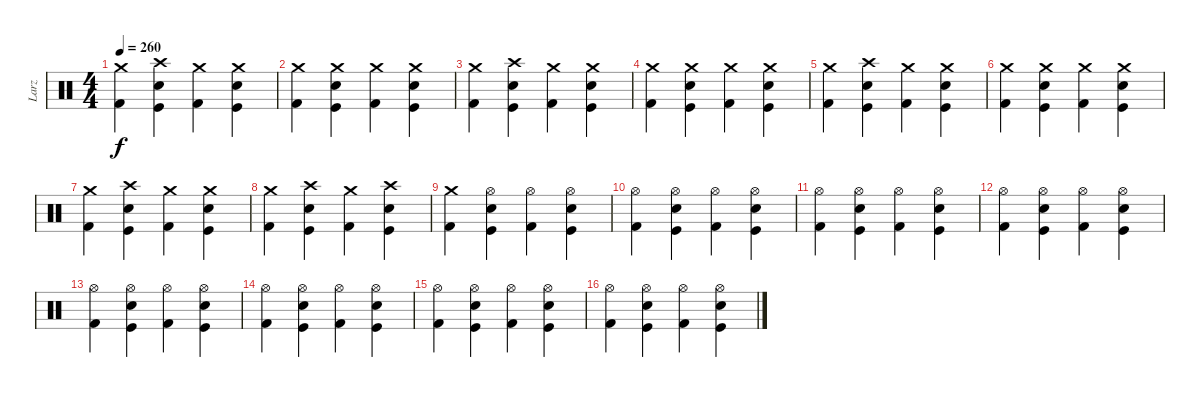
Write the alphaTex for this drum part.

\track ("Larz" "Larz") {instrument percussion}
\staff {score}
\articulation defaults
\ts (4 4)
\tempo 260
\clef neutral
\ks c
("Crash medium (hit)" "Kick (hit) 2").4{dy f} ("Crash high (hit)" "Kick (hit)" "Electric Snare (hit)").4 ("Crash medium (hit)" "Kick (hit) 2").4 ("Crash medium (hit)" "Kick (hit)" "Electric Snare (hit)").4 |
("Crash medium (hit)" "Kick (hit) 2").4 ("Crash medium (hit)" "Kick (hit)" "Electric Snare (hit)").4 ("Crash medium (hit)" "Kick (hit) 2").4 ("Crash medium (hit)" "Kick (hit)" "Electric Snare (hit)").4 |
("Crash medium (hit)" "Kick (hit) 2").4 ("Crash high (hit)" "Kick (hit)" "Electric Snare (hit)").4 ("Crash medium (hit)" "Kick (hit) 2").4 ("Crash medium (hit)" "Kick (hit)" "Electric Snare (hit)").4 |
("Crash medium (hit)" "Kick (hit) 2").4 ("Crash medium (hit)" "Kick (hit)" "Electric Snare (hit)").4 ("Crash medium (hit)" "Kick (hit) 2").4 ("Crash medium (hit)" "Kick (hit)" "Electric Snare (hit)").4 |
("Crash medium (hit)" "Kick (hit) 2").4 ("Crash high (hit)" "Kick (hit)" "Electric Snare (hit)").4 ("Crash medium (hit)" "Kick (hit) 2").4 ("Crash medium (hit)" "Kick (hit)" "Electric Snare (hit)").4 |
("Crash medium (hit)" "Kick (hit) 2").4 ("Crash medium (hit)" "Kick (hit)" "Electric Snare (hit)").4 ("Crash medium (hit)" "Kick (hit) 2").4 ("Crash medium (hit)" "Kick (hit)" "Electric Snare (hit)").4 |
("Crash medium (hit)" "Kick (hit) 2").4 ("Crash high (hit)" "Kick (hit)" "Electric Snare (hit)").4 ("Crash medium (hit)" "Kick (hit) 2").4 ("Crash medium (hit)" "Kick (hit)" "Electric Snare (hit)").4 |
("Crash medium (hit)" "Kick (hit) 2").4 ("Crash high (hit)" "Kick (hit)" "Electric Snare (hit)").4 ("Crash medium (hit)" "Kick (hit) 2").4 ("Crash high (hit)" "Kick (hit)" "Electric Snare (hit)").4 |
("Crash medium (hit)" "Kick (hit) 2").4 ("Hi-Hat (open)" "Kick (hit)" "Electric Snare (hit)").4 ("Hi-Hat (open)" "Kick (hit) 2").4 ("Hi-Hat (open)" "Kick (hit)" "Electric Snare (hit)").4 |
("Hi-Hat (open)" "Kick (hit) 2").4 ("Hi-Hat (open)" "Kick (hit)" "Electric Snare (hit)").4 ("Hi-Hat (open)" "Kick (hit) 2").4 ("Hi-Hat (open)" "Kick (hit)" "Electric Snare (hit)").4 |
("Hi-Hat (open)" "Kick (hit) 2").4 ("Hi-Hat (open)" "Kick (hit)" "Electric Snare (hit)").4 ("Hi-Hat (open)" "Kick (hit) 2").4 ("Hi-Hat (open)" "Kick (hit)" "Electric Snare (hit)").4 |
("Hi-Hat (open)" "Kick (hit) 2").4 ("Hi-Hat (open)" "Kick (hit)" "Electric Snare (hit)").4 ("Hi-Hat (open)" "Kick (hit) 2").4 ("Hi-Hat (open)" "Kick (hit)" "Electric Snare (hit)").4 |
("Hi-Hat (open)" "Kick (hit) 2").4 ("Hi-Hat (open)" "Kick (hit)" "Electric Snare (hit)").4 ("Hi-Hat (open)" "Kick (hit) 2").4 ("Hi-Hat (open)" "Kick (hit)" "Electric Snare (hit)").4 |
("Hi-Hat (open)" "Kick (hit) 2").4 ("Hi-Hat (open)" "Kick (hit)" "Electric Snare (hit)").4 ("Hi-Hat (open)" "Kick (hit) 2").4 ("Hi-Hat (open)" "Kick (hit)" "Electric Snare (hit)").4 |
("Hi-Hat (open)" "Kick (hit) 2").4 ("Hi-Hat (open)" "Kick (hit)" "Electric Snare (hit)").4 ("Hi-Hat (open)" "Kick (hit) 2").4 ("Hi-Hat (open)" "Kick (hit)" "Electric Snare (hit)").4 |
("Hi-Hat (open)" "Kick (hit) 2").4 ("Hi-Hat (open)" "Kick (hit)" "Electric Snare (hit)").4 ("Hi-Hat (open)" "Kick (hit) 2").4 ("Hi-Hat (open)" "Kick (hit)" "Electric Snare (hit)").4
